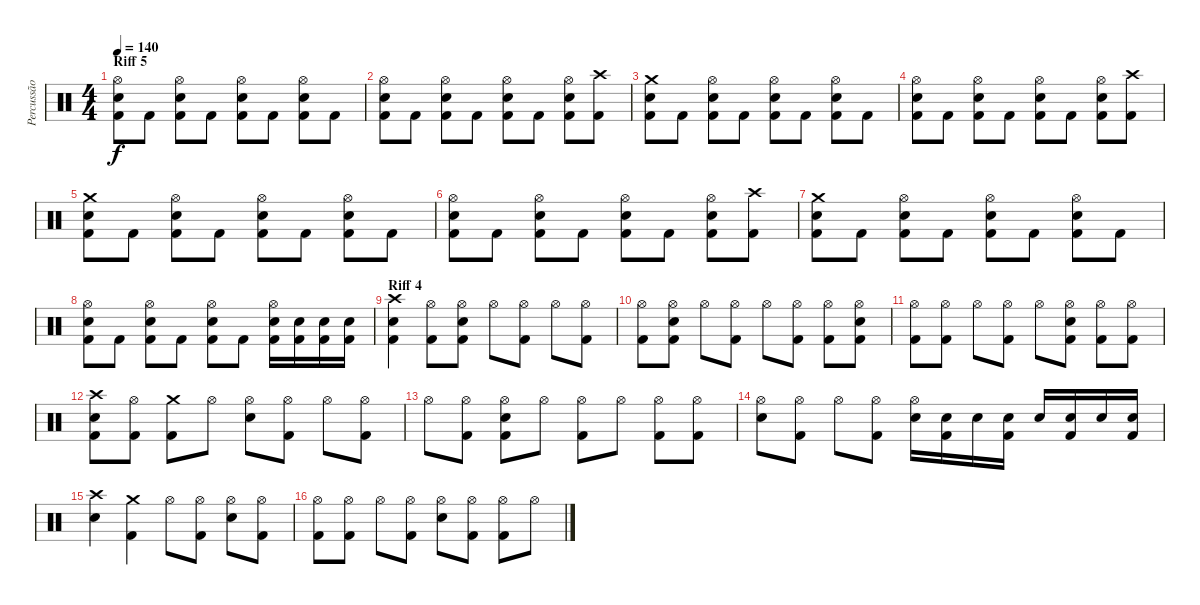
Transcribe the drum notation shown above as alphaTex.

\track ("Percussão" "Percussão") {instrument percussion}
\staff {score}
\articulation defaults
\ts (4 4)
\section ("" "Riff 5")
\tempo 140
\clef neutral
\ks c
("Hi-Hat (open)" "Snare (hit) 2" "Kick (hit) 2").8{dy f} "Kick (hit) 2".8 ("Hi-Hat (open)" "Snare (hit) 2" "Kick (hit) 2").8 "Kick (hit) 2".8 ("Hi-Hat (open)" "Snare (hit) 2" "Kick (hit) 2").8 "Kick (hit) 2".8 ("Hi-Hat (open)" "Snare (hit) 2" "Kick (hit) 2").8 "Kick (hit) 2".8 |
("Hi-Hat (open)" "Snare (hit) 2" "Kick (hit) 2").8 "Kick (hit) 2".8 ("Hi-Hat (open)" "Snare (hit) 2" "Kick (hit) 2").8 "Kick (hit) 2".8 ("Hi-Hat (open)" "Snare (hit) 2" "Kick (hit) 2").8 "Kick (hit) 2".8 ("Hi-Hat (open)" "Snare (hit) 2" "Kick (hit) 2").8 ("Crash high (hit)" "Kick (hit) 2").8 |
("Crash medium (hit)" "Snare (hit) 2" "Kick (hit) 2").8 "Kick (hit) 2".8 ("Hi-Hat (open)" "Snare (hit) 2" "Kick (hit) 2").8 "Kick (hit) 2".8 ("Hi-Hat (open)" "Snare (hit) 2" "Kick (hit) 2").8 "Kick (hit) 2".8 ("Hi-Hat (open)" "Snare (hit) 2" "Kick (hit) 2").8 "Kick (hit) 2".8 |
("Hi-Hat (open)" "Snare (hit) 2" "Kick (hit) 2").8 "Kick (hit) 2".8 ("Hi-Hat (open)" "Snare (hit) 2" "Kick (hit) 2").8 "Kick (hit) 2".8 ("Hi-Hat (open)" "Snare (hit) 2" "Kick (hit) 2").8 "Kick (hit) 2".8 ("Hi-Hat (open)" "Snare (hit) 2" "Kick (hit) 2").8 ("Crash high (hit)" "Kick (hit) 2").8 |
("Crash medium (hit)" "Snare (hit) 2" "Kick (hit) 2").8 "Kick (hit) 2".8 ("Hi-Hat (open)" "Snare (hit) 2" "Kick (hit) 2").8 "Kick (hit) 2".8 ("Hi-Hat (open)" "Snare (hit) 2" "Kick (hit) 2").8 "Kick (hit) 2".8 ("Hi-Hat (open)" "Snare (hit) 2" "Kick (hit) 2").8 "Kick (hit) 2".8 |
("Hi-Hat (open)" "Snare (hit) 2" "Kick (hit) 2").8 "Kick (hit) 2".8 ("Hi-Hat (open)" "Snare (hit) 2" "Kick (hit) 2").8 "Kick (hit) 2".8 ("Hi-Hat (open)" "Snare (hit) 2" "Kick (hit) 2").8 "Kick (hit) 2".8 ("Hi-Hat (open)" "Snare (hit) 2" "Kick (hit) 2").8 ("Crash high (hit)" "Kick (hit) 2").8 |
("Crash medium (hit)" "Snare (hit) 2" "Kick (hit) 2").8 "Kick (hit) 2".8 ("Hi-Hat (open)" "Snare (hit) 2" "Kick (hit) 2").8 "Kick (hit) 2".8 ("Hi-Hat (open)" "Snare (hit) 2" "Kick (hit) 2").8 "Kick (hit) 2".8 ("Hi-Hat (open)" "Snare (hit) 2" "Kick (hit) 2").8 "Kick (hit) 2".8 |
("Hi-Hat (open)" "Snare (hit) 2" "Kick (hit) 2").8 "Kick (hit) 2".8 ("Hi-Hat (open)" "Snare (hit) 2" "Kick (hit) 2").8 "Kick (hit) 2".8 ("Hi-Hat (open)" "Snare (hit) 2" "Kick (hit) 2").8 "Kick (hit) 2".8 ("Hi-Hat (open)" "Snare (hit) 2" "Kick (hit) 2").16 ("Snare (hit) 2" "Kick (hit) 2").16 ("Snare (hit) 2" "Kick (hit) 2").16 ("Snare (hit) 2" "Kick (hit) 2").16 |
\section ("" "Riff 4")
("Crash high (hit)" "Snare (hit) 2" "Kick (hit) 2").4 ("Hi-Hat (open)" "Kick (hit) 2").8 ("Hi-Hat (open)" "Snare (hit) 2" "Kick (hit) 2").8 "Hi-Hat (open)".8 ("Hi-Hat (open)" "Kick (hit) 2").8 "Hi-Hat (open)".8 ("Hi-Hat (open)" "Kick (hit) 2").8 |
("Hi-Hat (open)" "Kick (hit) 2").8 ("Hi-Hat (open)" "Snare (hit) 2" "Kick (hit) 2").8 "Hi-Hat (open)".8 ("Hi-Hat (open)" "Kick (hit) 2").8 "Hi-Hat (open)".8 ("Hi-Hat (open)" "Kick (hit) 2").8 ("Hi-Hat (open)" "Kick (hit) 2").8 ("Hi-Hat (open)" "Snare (hit) 2" "Kick (hit) 2").8 |
("Hi-Hat (open)" "Kick (hit) 2").8 ("Hi-Hat (open)" "Kick (hit) 2").8 "Hi-Hat (open)".8 ("Hi-Hat (open)" "Kick (hit) 2").8 "Hi-Hat (open)".8 ("Hi-Hat (open)" "Snare (hit) 2" "Kick (hit) 2").8 ("Hi-Hat (open)" "Kick (hit) 2").8 ("Hi-Hat (open)" "Kick (hit) 2").8 |
("Crash high (hit)" "Snare (hit) 2" "Kick (hit) 2").8 ("Hi-Hat (open)" "Kick (hit) 2").8 ("Crash medium (hit)" "Kick (hit) 2").8 "Hi-Hat (open)".8 ("Hi-Hat (open)" "Snare (hit) 2").8 ("Hi-Hat (open)" "Kick (hit) 2").8 "Hi-Hat (open)".8 ("Hi-Hat (open)" "Kick (hit) 2").8 |
"Hi-Hat (open)".8 ("Hi-Hat (open)" "Kick (hit) 2").8 ("Hi-Hat (open)" "Snare (hit) 2" "Kick (hit) 2").8 "Hi-Hat (open)".8 ("Hi-Hat (open)" "Kick (hit) 2").8 "Hi-Hat (open)".8 ("Hi-Hat (open)" "Kick (hit) 2").8 ("Hi-Hat (open)" "Kick (hit) 2").8 |
("Hi-Hat (open)" "Snare (hit) 2").8 ("Hi-Hat (open)" "Kick (hit) 2").8 "Hi-Hat (open)".8 ("Hi-Hat (open)" "Kick (hit) 2").8 ("Hi-Hat (open)" "Electric Snare (hit)").16 ("Electric Snare (hit)" "Kick (hit) 2").16 "Electric Snare (hit)".16 ("Electric Snare (hit)" "Kick (hit) 2").16 "Snare (hit) 2".16 ("Snare (hit) 2" "Kick (hit) 2").16 "Snare (hit) 2".16 ("Snare (hit) 2" "Kick (hit) 2").16 |
("Crash high (hit)" "Snare (hit) 2").4 ("Crash medium (hit)" "Kick (hit) 2").4 "Hi-Hat (open)".8 ("Hi-Hat (open)" "Kick (hit) 2").8 ("Hi-Hat (open)" "Snare (hit) 2").8 ("Hi-Hat (open)" "Kick (hit) 2").8 |
("Hi-Hat (open)" "Kick (hit) 2").8 ("Hi-Hat (open)" "Kick (hit) 2").8 "Hi-Hat (open)".8 ("Hi-Hat (open)" "Kick (hit) 2").8 ("Hi-Hat (open)" "Snare (hit) 2").8 ("Hi-Hat (open)" "Kick (hit) 2").8 ("Hi-Hat (open)" "Kick (hit) 2").8 "Hi-Hat (open)".8
